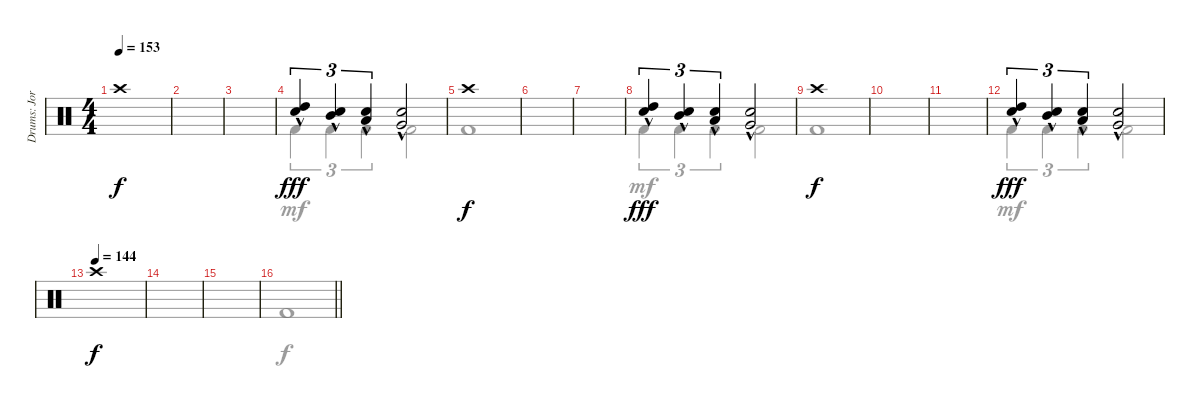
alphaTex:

\track ("Drums: Jorg" "Drums: Jor") {instrument percussion}
\staff {score}
\articulation defaults
\voice
\ts (4 4)
\tempo 153
\clef neutral
\ks c "Crash high (hit)".1{dy f}
|
|
|
("Snare (hit) 2" "High Tom (hit)"{hac}).4{tu (3 2) dy fff} ("Snare (hit) 2" "Mid Tom (hit)"{hac}).4{tu (3 2)} ("Snare (hit) 2" "Low Tom (hit)"{hac}).4{tu (3 2)} ("Snare (hit) 2" "Very Low Tom (hit)"{hac}).2 |
"Crash high (hit)".1{dy f} |
|
|
("Snare (hit) 2" "High Tom (hit)"{hac}).4{tu (3 2) dy fff} ("Snare (hit) 2" "Mid Tom (hit)"{hac}).4{tu (3 2)} ("Snare (hit) 2" "Low Tom (hit)"{hac}).4{tu (3 2)} ("Snare (hit) 2" "Very Low Tom (hit)"{hac}).2 |
"Crash high (hit)".1{dy f} |
|
|
("Snare (hit) 2" "High Tom (hit)"{hac}).4{tu (3 2) dy fff} ("Snare (hit) 2" "Mid Tom (hit)"{hac}).4{tu (3 2)} ("Snare (hit) 2" "Low Tom (hit)"{hac}).4{tu (3 2)} ("Snare (hit) 2" "Very Low Tom (hit)"{hac}).2 |
\tempo (144)
"Crash high (hit)".1{dy f} |
|
|
\barLineRight lightlight
\voice
\clef neutral
\ottava regular
\simile none
\ks c "Kick (hit) 2".1{dy f}
|
|
|
"Kick (hit) 2".4{tu (3 2) dy mf} "Kick (hit) 2".4{tu (3 2)} "Kick (hit) 2".4{tu (3 2)} "Kick (hit) 2".2 |
"Kick (hit) 2".1{dy f} |
|
|
"Kick (hit) 2".4{tu (3 2) dy mf} "Kick (hit) 2".4{tu (3 2)} "Kick (hit) 2".4{tu (3 2)} "Kick (hit) 2".2 |
"Kick (hit) 2".1{dy f} |
|
|
"Kick (hit) 2".4{tu (3 2) dy mf} "Kick (hit) 2".4{tu (3 2)} "Kick (hit) 2".4{tu (3 2)} "Kick (hit) 2".2 |
|
|
|
\barLineRight lightlight
